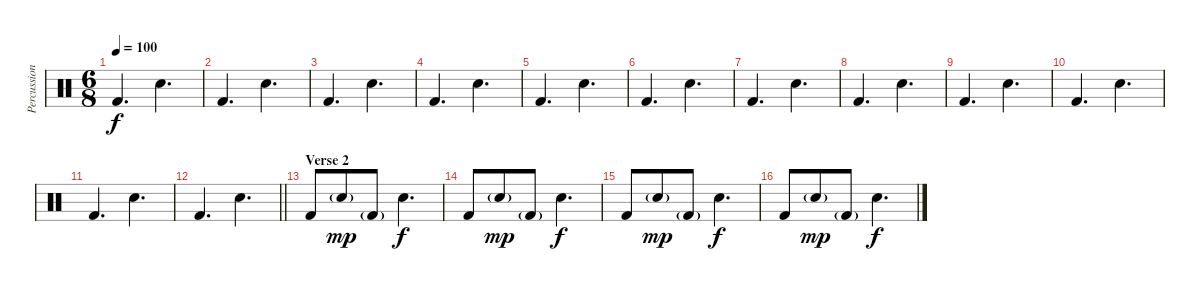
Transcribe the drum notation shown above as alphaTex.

\track ("Percussion" "Percussion") {instrument percussion}
\staff {score}
\articulation defaults
\ts (6 8)
\tempo 100
\clef neutral
\ks c "Kick (hit) 2".4{d dy f} "Snare (hit) 2".4{d}
|
"Kick (hit) 2".4{d} "Snare (hit) 2".4{d} |
"Kick (hit) 2".4{d} "Snare (hit) 2".4{d} |
"Kick (hit) 2".4{d} "Snare (hit) 2".4{d} |
"Kick (hit) 2".4{d} "Snare (hit) 2".4{d} |
"Kick (hit) 2".4{d} "Snare (hit) 2".4{d} |
"Kick (hit) 2".4{d} "Snare (hit) 2".4{d} |
"Kick (hit) 2".4{d} "Snare (hit) 2".4{d} |
"Kick (hit) 2".4{d} "Snare (hit) 2".4{d} |
"Kick (hit) 2".4{d} "Snare (hit) 2".4{d} |
"Kick (hit) 2".4{d} "Snare (hit) 2".4{d} |
\barLineRight lightlight "Kick (hit) 2".4{d} "Snare (hit) 2".4{d}
|
\section ("" "Verse 2")
"Kick (hit) 2".8 "Snare (hit) 2"{g}.8{dy mp} "Kick (hit) 2"{g}.8 "Snare (hit) 2".4{d dy f} |
"Kick (hit) 2".8 "Snare (hit) 2"{g}.8{dy mp} "Kick (hit) 2"{g}.8 "Snare (hit) 2".4{d dy f} |
"Kick (hit) 2".8 "Snare (hit) 2"{g}.8{dy mp} "Kick (hit) 2"{g}.8 "Snare (hit) 2".4{d dy f} |
"Kick (hit) 2".8 "Snare (hit) 2"{g}.8{dy mp} "Kick (hit) 2"{g}.8 "Snare (hit) 2".4{d dy f}
